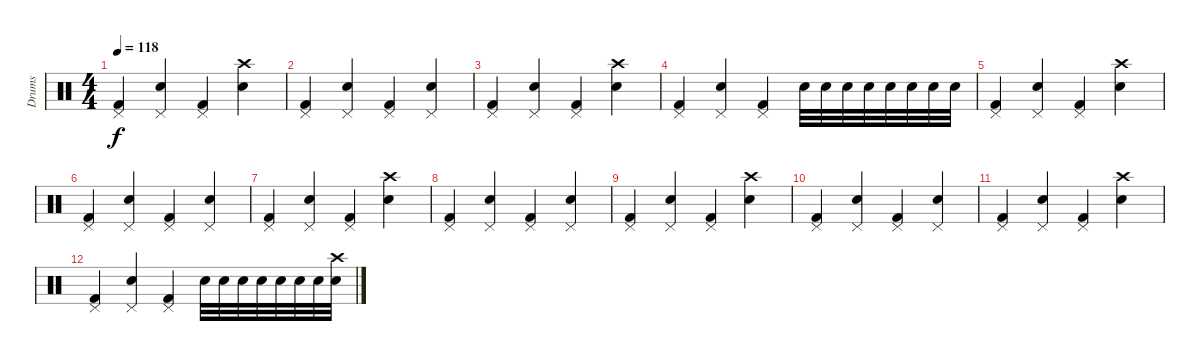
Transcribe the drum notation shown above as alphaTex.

\track ("Drums" "Drums") {instrument percussion}
\staff {score}
\articulation defaults
\ts (4 4)
\tempo 118
\clef neutral
\ks c
("Pedal Hi-Hat (hit)" "Kick (hit) 2").4{dy f} ("Pedal Hi-Hat (hit)" "Snare (hit) 2").4 ("Pedal Hi-Hat (hit)" "Kick (hit) 2").4 ("Crash high (hit)" "Snare (hit) 2").4 |
("Pedal Hi-Hat (hit)" "Kick (hit) 2").4 ("Pedal Hi-Hat (hit)" "Snare (hit) 2").4 ("Pedal Hi-Hat (hit)" "Kick (hit) 2").4 ("Pedal Hi-Hat (hit)" "Snare (hit) 2").4 |
("Pedal Hi-Hat (hit)" "Kick (hit) 2").4 ("Pedal Hi-Hat (hit)" "Snare (hit) 2").4 ("Pedal Hi-Hat (hit)" "Kick (hit) 2").4 ("Crash high (hit)" "Snare (hit) 2").4 |
("Pedal Hi-Hat (hit)" "Kick (hit) 2").4 ("Pedal Hi-Hat (hit)" "Snare (hit) 2").4 ("Pedal Hi-Hat (hit)" "Kick (hit) 2").4 "Snare (hit) 2".32 "Snare (hit) 2".32 "Snare (hit) 2".32 "Snare (hit) 2".32 "Snare (hit) 2".32 "Snare (hit) 2".32 "Snare (hit) 2".32 "Snare (hit) 2".32 |
("Pedal Hi-Hat (hit)" "Kick (hit) 2").4 ("Pedal Hi-Hat (hit)" "Snare (hit) 2").4 ("Pedal Hi-Hat (hit)" "Kick (hit) 2").4 ("Crash high (hit)" "Snare (hit) 2").4 |
("Pedal Hi-Hat (hit)" "Kick (hit) 2").4 ("Pedal Hi-Hat (hit)" "Snare (hit) 2").4 ("Pedal Hi-Hat (hit)" "Kick (hit) 2").4 ("Pedal Hi-Hat (hit)" "Snare (hit) 2").4 |
("Pedal Hi-Hat (hit)" "Kick (hit) 2").4 ("Pedal Hi-Hat (hit)" "Snare (hit) 2").4 ("Pedal Hi-Hat (hit)" "Kick (hit) 2").4 ("Crash high (hit)" "Snare (hit) 2").4 |
("Pedal Hi-Hat (hit)" "Kick (hit) 2").4 ("Pedal Hi-Hat (hit)" "Snare (hit) 2").4 ("Pedal Hi-Hat (hit)" "Kick (hit) 2").4 ("Pedal Hi-Hat (hit)" "Snare (hit) 2").4 |
("Pedal Hi-Hat (hit)" "Kick (hit) 2").4 ("Pedal Hi-Hat (hit)" "Snare (hit) 2").4 ("Pedal Hi-Hat (hit)" "Kick (hit) 2").4 ("Crash high (hit)" "Snare (hit) 2").4 |
("Pedal Hi-Hat (hit)" "Kick (hit) 2").4 ("Pedal Hi-Hat (hit)" "Snare (hit) 2").4 ("Pedal Hi-Hat (hit)" "Kick (hit) 2").4 ("Pedal Hi-Hat (hit)" "Snare (hit) 2").4 |
("Pedal Hi-Hat (hit)" "Kick (hit) 2").4 ("Pedal Hi-Hat (hit)" "Snare (hit) 2").4 ("Pedal Hi-Hat (hit)" "Kick (hit) 2").4 ("Crash high (hit)" "Snare (hit) 2").4 |
("Pedal Hi-Hat (hit)" "Kick (hit) 2").4 ("Pedal Hi-Hat (hit)" "Snare (hit) 2").4 ("Pedal Hi-Hat (hit)" "Kick (hit) 2").4 "Snare (hit) 2".32 "Snare (hit) 2".32 "Snare (hit) 2".32 "Snare (hit) 2".32 "Snare (hit) 2".32 "Snare (hit) 2".32 "Snare (hit) 2".32 ("Crash high (hit)" "Snare (hit) 2").32
